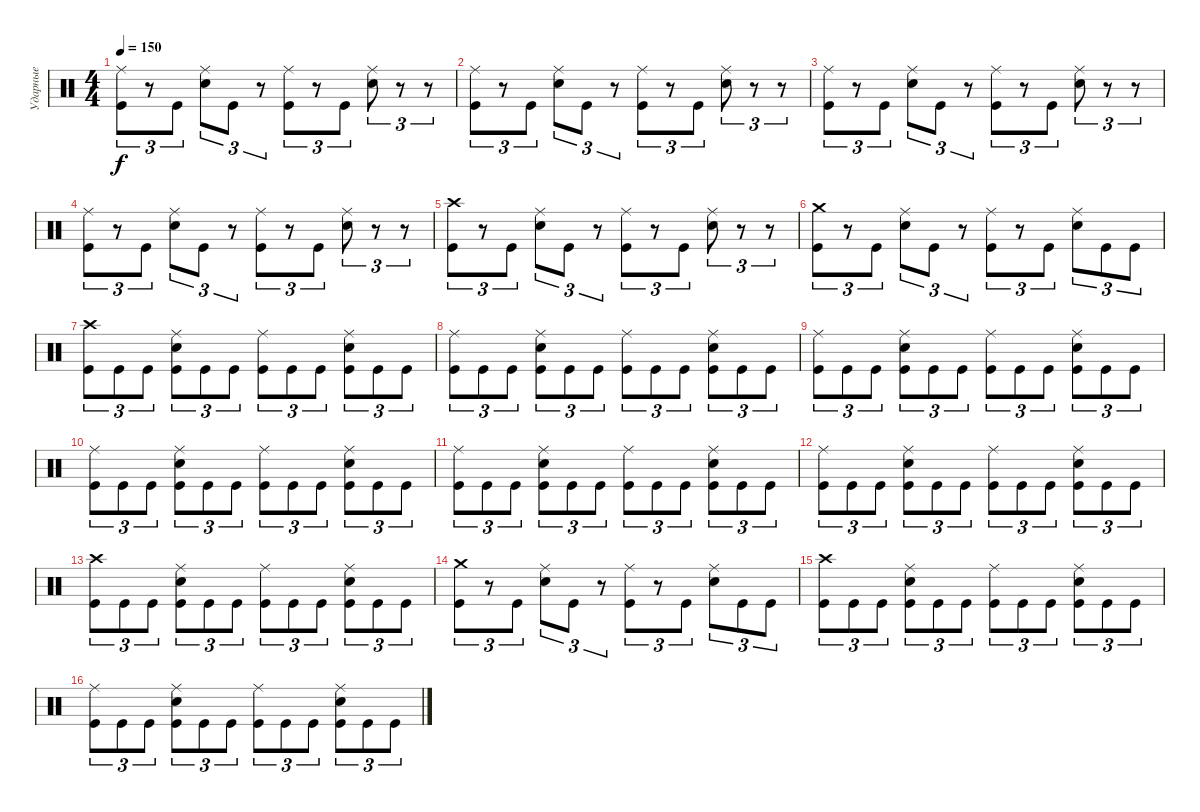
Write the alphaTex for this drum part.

\track ("Ударные" "Ударные") {instrument percussion}
\staff {score}
\articulation defaults
\ts (4 4)
\tempo 150
\clef neutral
\ks c
("Ride (middle)" "Kick (hit)").8{tu (3 2) dy f} r.8{tu (3 2)} "Kick (hit)".8{tu (3 2)} ("Ride (middle)" "Snare (hit) 2").8{tu (3 2)} "Kick (hit)".8{tu (3 2)} r.8{tu (3 2)} ("Ride (middle)" "Kick (hit)").8{tu (3 2)} r.8{tu (3 2)} "Kick (hit)".8{tu (3 2)} ("Ride (middle)" "Snare (hit) 2").8{tu (3 2)} r.8{tu (3 2)} r.8{tu (3 2)} |
("Ride (middle)" "Kick (hit)").8{tu (3 2)} r.8{tu (3 2)} "Kick (hit)".8{tu (3 2)} ("Ride (middle)" "Snare (hit) 2").8{tu (3 2)} "Kick (hit)".8{tu (3 2)} r.8{tu (3 2)} ("Ride (middle)" "Kick (hit)").8{tu (3 2)} r.8{tu (3 2)} "Kick (hit)".8{tu (3 2)} ("Ride (middle)" "Snare (hit) 2").8{tu (3 2)} r.8{tu (3 2)} r.8{tu (3 2)} |
("Ride (middle)" "Kick (hit)").8{tu (3 2)} r.8{tu (3 2)} "Kick (hit)".8{tu (3 2)} ("Ride (middle)" "Snare (hit) 2").8{tu (3 2)} "Kick (hit)".8{tu (3 2)} r.8{tu (3 2)} ("Ride (middle)" "Kick (hit)").8{tu (3 2)} r.8{tu (3 2)} "Kick (hit)".8{tu (3 2)} ("Ride (middle)" "Snare (hit) 2").8{tu (3 2)} r.8{tu (3 2)} r.8{tu (3 2)} |
("Ride (middle)" "Kick (hit)").8{tu (3 2)} r.8{tu (3 2)} "Kick (hit)".8{tu (3 2)} ("Ride (middle)" "Snare (hit) 2").8{tu (3 2)} "Kick (hit)".8{tu (3 2)} r.8{tu (3 2)} ("Ride (middle)" "Kick (hit)").8{tu (3 2)} r.8{tu (3 2)} "Kick (hit)".8{tu (3 2)} ("Ride (middle)" "Snare (hit) 2").8{tu (3 2)} r.8{tu (3 2)} r.8{tu (3 2)} |
("Crash high (hit)" "Kick (hit)").8{tu (3 2)} r.8{tu (3 2)} "Kick (hit)".8{tu (3 2)} ("Ride (middle)" "Snare (hit) 2").8{tu (3 2)} "Kick (hit)".8{tu (3 2)} r.8{tu (3 2)} ("Ride (middle)" "Kick (hit)").8{tu (3 2)} r.8{tu (3 2)} "Kick (hit)".8{tu (3 2)} ("Ride (middle)" "Snare (hit) 2").8{tu (3 2)} r.8{tu (3 2)} r.8{tu (3 2)} |
("Crash medium (hit)" "Kick (hit)").8{tu (3 2)} r.8{tu (3 2)} "Kick (hit)".8{tu (3 2)} ("Ride (middle)" "Snare (hit) 2").8{tu (3 2)} "Kick (hit)".8{tu (3 2)} r.8{tu (3 2)} ("Ride (middle)" "Kick (hit)").8{tu (3 2)} r.8{tu (3 2)} "Kick (hit)".8{tu (3 2)} ("Ride (middle)" "Snare (hit) 2").8{tu (3 2)} "Kick (hit)".8{tu (3 2)} "Kick (hit)".8{tu (3 2)} |
("Crash high (hit)" "Kick (hit)").8{tu (3 2)} "Kick (hit)".8{tu (3 2)} "Kick (hit)".8{tu (3 2)} ("Ride (middle)" "Snare (hit) 2" "Kick (hit)").8{tu (3 2)} "Kick (hit)".8{tu (3 2)} "Kick (hit)".8{tu (3 2)} ("Ride (middle)" "Kick (hit)").8{tu (3 2)} "Kick (hit)".8{tu (3 2)} "Kick (hit)".8{tu (3 2)} ("Ride (middle)" "Snare (hit) 2" "Kick (hit)").8{tu (3 2)} "Kick (hit)".8{tu (3 2)} "Kick (hit)".8{tu (3 2)} |
("Ride (middle)" "Kick (hit)").8{tu (3 2)} "Kick (hit)".8{tu (3 2)} "Kick (hit)".8{tu (3 2)} ("Ride (middle)" "Snare (hit) 2" "Kick (hit)").8{tu (3 2)} "Kick (hit)".8{tu (3 2)} "Kick (hit)".8{tu (3 2)} ("Ride (middle)" "Kick (hit)").8{tu (3 2)} "Kick (hit)".8{tu (3 2)} "Kick (hit)".8{tu (3 2)} ("Ride (middle)" "Snare (hit) 2" "Kick (hit)").8{tu (3 2)} "Kick (hit)".8{tu (3 2)} "Kick (hit)".8{tu (3 2)} |
("Ride (middle)" "Kick (hit)").8{tu (3 2)} "Kick (hit)".8{tu (3 2)} "Kick (hit)".8{tu (3 2)} ("Ride (middle)" "Snare (hit) 2" "Kick (hit)").8{tu (3 2)} "Kick (hit)".8{tu (3 2)} "Kick (hit)".8{tu (3 2)} ("Ride (middle)" "Kick (hit)").8{tu (3 2)} "Kick (hit)".8{tu (3 2)} "Kick (hit)".8{tu (3 2)} ("Ride (middle)" "Snare (hit) 2" "Kick (hit)").8{tu (3 2)} "Kick (hit)".8{tu (3 2)} "Kick (hit)".8{tu (3 2)} |
("Ride (middle)" "Kick (hit)").8{tu (3 2)} "Kick (hit)".8{tu (3 2)} "Kick (hit)".8{tu (3 2)} ("Ride (middle)" "Snare (hit) 2" "Kick (hit)").8{tu (3 2)} "Kick (hit)".8{tu (3 2)} "Kick (hit)".8{tu (3 2)} ("Ride (middle)" "Kick (hit)").8{tu (3 2)} "Kick (hit)".8{tu (3 2)} "Kick (hit)".8{tu (3 2)} ("Ride (middle)" "Snare (hit) 2" "Kick (hit)").8{tu (3 2)} "Kick (hit)".8{tu (3 2)} "Kick (hit)".8{tu (3 2)} |
("Ride (middle)" "Kick (hit)").8{tu (3 2)} "Kick (hit)".8{tu (3 2)} "Kick (hit)".8{tu (3 2)} ("Ride (middle)" "Snare (hit) 2" "Kick (hit)").8{tu (3 2)} "Kick (hit)".8{tu (3 2)} "Kick (hit)".8{tu (3 2)} ("Ride (middle)" "Kick (hit)").8{tu (3 2)} "Kick (hit)".8{tu (3 2)} "Kick (hit)".8{tu (3 2)} ("Ride (middle)" "Snare (hit) 2" "Kick (hit)").8{tu (3 2)} "Kick (hit)".8{tu (3 2)} "Kick (hit)".8{tu (3 2)} |
("Ride (middle)" "Kick (hit)").8{tu (3 2)} "Kick (hit)".8{tu (3 2)} "Kick (hit)".8{tu (3 2)} ("Ride (middle)" "Snare (hit) 2" "Kick (hit)").8{tu (3 2)} "Kick (hit)".8{tu (3 2)} "Kick (hit)".8{tu (3 2)} ("Ride (middle)" "Kick (hit)").8{tu (3 2)} "Kick (hit)".8{tu (3 2)} "Kick (hit)".8{tu (3 2)} ("Ride (middle)" "Snare (hit) 2" "Kick (hit)").8{tu (3 2)} "Kick (hit)".8{tu (3 2)} "Kick (hit)".8{tu (3 2)} |
("Crash high (hit)" "Kick (hit)").8{tu (3 2)} "Kick (hit)".8{tu (3 2)} "Kick (hit)".8{tu (3 2)} ("Ride (middle)" "Snare (hit) 2" "Kick (hit)").8{tu (3 2)} "Kick (hit)".8{tu (3 2)} "Kick (hit)".8{tu (3 2)} ("Ride (middle)" "Kick (hit)").8{tu (3 2)} "Kick (hit)".8{tu (3 2)} "Kick (hit)".8{tu (3 2)} ("Ride (middle)" "Snare (hit) 2" "Kick (hit)").8{tu (3 2)} "Kick (hit)".8{tu (3 2)} "Kick (hit)".8{tu (3 2)} |
("Crash medium (hit)" "Kick (hit)").8{tu (3 2)} r.8{tu (3 2)} "Kick (hit)".8{tu (3 2)} ("Ride (middle)" "Snare (hit) 2").8{tu (3 2)} "Kick (hit)".8{tu (3 2)} r.8{tu (3 2)} ("Ride (middle)" "Kick (hit)").8{tu (3 2)} r.8{tu (3 2)} "Kick (hit)".8{tu (3 2)} ("Ride (middle)" "Snare (hit) 2").8{tu (3 2)} "Kick (hit)".8{tu (3 2)} "Kick (hit)".8{tu (3 2)} |
("Crash high (hit)" "Kick (hit)").8{tu (3 2)} "Kick (hit)".8{tu (3 2)} "Kick (hit)".8{tu (3 2)} ("Ride (middle)" "Snare (hit) 2" "Kick (hit)").8{tu (3 2)} "Kick (hit)".8{tu (3 2)} "Kick (hit)".8{tu (3 2)} ("Ride (middle)" "Kick (hit)").8{tu (3 2)} "Kick (hit)".8{tu (3 2)} "Kick (hit)".8{tu (3 2)} ("Ride (middle)" "Snare (hit) 2" "Kick (hit)").8{tu (3 2)} "Kick (hit)".8{tu (3 2)} "Kick (hit)".8{tu (3 2)} |
("Ride (middle)" "Kick (hit)").8{tu (3 2)} "Kick (hit)".8{tu (3 2)} "Kick (hit)".8{tu (3 2)} ("Ride (middle)" "Snare (hit) 2" "Kick (hit)").8{tu (3 2)} "Kick (hit)".8{tu (3 2)} "Kick (hit)".8{tu (3 2)} ("Ride (middle)" "Kick (hit)").8{tu (3 2)} "Kick (hit)".8{tu (3 2)} "Kick (hit)".8{tu (3 2)} ("Ride (middle)" "Snare (hit) 2" "Kick (hit)").8{tu (3 2)} "Kick (hit)".8{tu (3 2)} "Kick (hit)".8{tu (3 2)}
